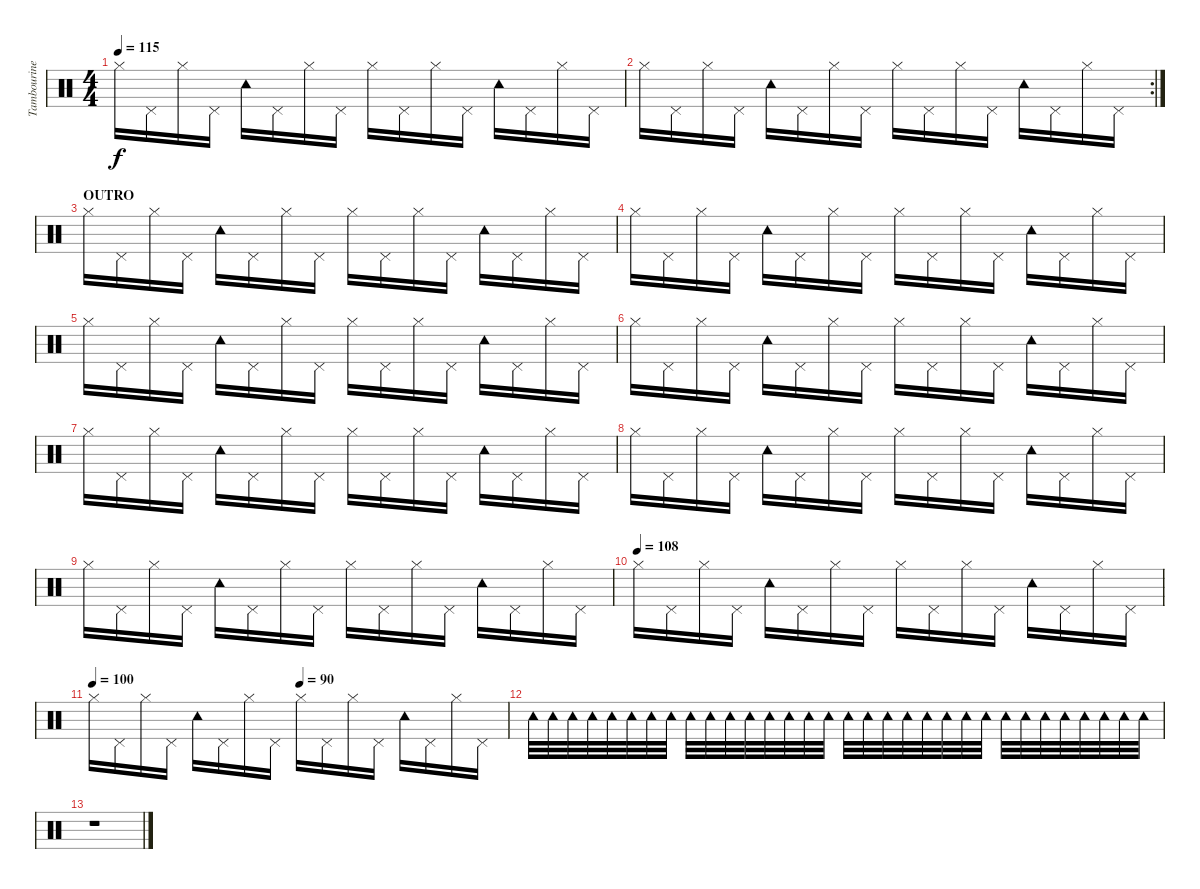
\track ("Tambourine" "Tambourine") {instrument percussion}
\staff {score}
\articulation defaults
\ts (4 4)
\tempo 115
\clef neutral
\ks c "Hi-Hat (closed)".16{dy f} "Pedal Hi-Hat (hit)".16 "Hi-Hat (closed)".16 "Pedal Hi-Hat (hit)".16 "Tambourine (hit)".16 "Pedal Hi-Hat (hit)".16 "Hi-Hat (closed)".16 "Pedal Hi-Hat (hit)".16 "Hi-Hat (closed)".16 "Pedal Hi-Hat (hit)".16 "Hi-Hat (closed)".16 "Pedal Hi-Hat (hit)".16 "Tambourine (hit)".16 "Pedal Hi-Hat (hit)".16 "Hi-Hat (closed)".16 "Pedal Hi-Hat (hit)".16
|
\rc 2 "Hi-Hat (closed)".16 "Pedal Hi-Hat (hit)".16 "Hi-Hat (closed)".16 "Pedal Hi-Hat (hit)".16 "Tambourine (hit)".16 "Pedal Hi-Hat (hit)".16 "Hi-Hat (closed)".16 "Pedal Hi-Hat (hit)".16 "Hi-Hat (closed)".16 "Pedal Hi-Hat (hit)".16 "Hi-Hat (closed)".16 "Pedal Hi-Hat (hit)".16 "Tambourine (hit)".16 "Pedal Hi-Hat (hit)".16 "Hi-Hat (closed)".16 "Pedal Hi-Hat (hit)".16
|
\section ("" "OUTRO")
"Hi-Hat (closed)".16 "Pedal Hi-Hat (hit)".16 "Hi-Hat (closed)".16 "Pedal Hi-Hat (hit)".16 "Tambourine (hit)".16 "Pedal Hi-Hat (hit)".16 "Hi-Hat (closed)".16 "Pedal Hi-Hat (hit)".16 "Hi-Hat (closed)".16 "Pedal Hi-Hat (hit)".16 "Hi-Hat (closed)".16 "Pedal Hi-Hat (hit)".16 "Tambourine (hit)".16 "Pedal Hi-Hat (hit)".16 "Hi-Hat (closed)".16 "Pedal Hi-Hat (hit)".16 |
"Hi-Hat (closed)".16 "Pedal Hi-Hat (hit)".16 "Hi-Hat (closed)".16 "Pedal Hi-Hat (hit)".16 "Tambourine (hit)".16 "Pedal Hi-Hat (hit)".16 "Hi-Hat (closed)".16 "Pedal Hi-Hat (hit)".16 "Hi-Hat (closed)".16 "Pedal Hi-Hat (hit)".16 "Hi-Hat (closed)".16 "Pedal Hi-Hat (hit)".16 "Tambourine (hit)".16 "Pedal Hi-Hat (hit)".16 "Hi-Hat (closed)".16 "Pedal Hi-Hat (hit)".16 |
"Hi-Hat (closed)".16 "Pedal Hi-Hat (hit)".16 "Hi-Hat (closed)".16 "Pedal Hi-Hat (hit)".16 "Tambourine (hit)".16 "Pedal Hi-Hat (hit)".16 "Hi-Hat (closed)".16 "Pedal Hi-Hat (hit)".16 "Hi-Hat (closed)".16 "Pedal Hi-Hat (hit)".16 "Hi-Hat (closed)".16 "Pedal Hi-Hat (hit)".16 "Tambourine (hit)".16 "Pedal Hi-Hat (hit)".16 "Hi-Hat (closed)".16 "Pedal Hi-Hat (hit)".16 |
"Hi-Hat (closed)".16 "Pedal Hi-Hat (hit)".16 "Hi-Hat (closed)".16 "Pedal Hi-Hat (hit)".16 "Tambourine (hit)".16 "Pedal Hi-Hat (hit)".16 "Hi-Hat (closed)".16 "Pedal Hi-Hat (hit)".16 "Hi-Hat (closed)".16 "Pedal Hi-Hat (hit)".16 "Hi-Hat (closed)".16 "Pedal Hi-Hat (hit)".16 "Tambourine (hit)".16 "Pedal Hi-Hat (hit)".16 "Hi-Hat (closed)".16 "Pedal Hi-Hat (hit)".16 |
"Hi-Hat (closed)".16 "Pedal Hi-Hat (hit)".16 "Hi-Hat (closed)".16 "Pedal Hi-Hat (hit)".16 "Tambourine (hit)".16 "Pedal Hi-Hat (hit)".16 "Hi-Hat (closed)".16 "Pedal Hi-Hat (hit)".16 "Hi-Hat (closed)".16 "Pedal Hi-Hat (hit)".16 "Hi-Hat (closed)".16 "Pedal Hi-Hat (hit)".16 "Tambourine (hit)".16 "Pedal Hi-Hat (hit)".16 "Hi-Hat (closed)".16 "Pedal Hi-Hat (hit)".16 |
"Hi-Hat (closed)".16 "Pedal Hi-Hat (hit)".16 "Hi-Hat (closed)".16 "Pedal Hi-Hat (hit)".16 "Tambourine (hit)".16 "Pedal Hi-Hat (hit)".16 "Hi-Hat (closed)".16 "Pedal Hi-Hat (hit)".16 "Hi-Hat (closed)".16 "Pedal Hi-Hat (hit)".16 "Hi-Hat (closed)".16 "Pedal Hi-Hat (hit)".16 "Tambourine (hit)".16 "Pedal Hi-Hat (hit)".16 "Hi-Hat (closed)".16 "Pedal Hi-Hat (hit)".16 |
"Hi-Hat (closed)".16 "Pedal Hi-Hat (hit)".16 "Hi-Hat (closed)".16 "Pedal Hi-Hat (hit)".16 "Tambourine (hit)".16 "Pedal Hi-Hat (hit)".16 "Hi-Hat (closed)".16 "Pedal Hi-Hat (hit)".16 "Hi-Hat (closed)".16 "Pedal Hi-Hat (hit)".16 "Hi-Hat (closed)".16 "Pedal Hi-Hat (hit)".16 "Tambourine (hit)".16 "Pedal Hi-Hat (hit)".16 "Hi-Hat (closed)".16 "Pedal Hi-Hat (hit)".16 |
\tempo (108)
"Hi-Hat (closed)".16 "Pedal Hi-Hat (hit)".16 "Hi-Hat (closed)".16 "Pedal Hi-Hat (hit)".16 "Tambourine (hit)".16 "Pedal Hi-Hat (hit)".16 "Hi-Hat (closed)".16 "Pedal Hi-Hat (hit)".16 "Hi-Hat (closed)".16 "Pedal Hi-Hat (hit)".16 "Hi-Hat (closed)".16 "Pedal Hi-Hat (hit)".16 "Tambourine (hit)".16 "Pedal Hi-Hat (hit)".16 "Hi-Hat (closed)".16 "Pedal Hi-Hat (hit)".16 |
\tempo 103
\tempo (97 0.5)
\tempo 100
\tempo (90 0.5)
"Hi-Hat (closed)".16 "Pedal Hi-Hat (hit)".16 "Hi-Hat (closed)".16 "Pedal Hi-Hat (hit)".16 "Tambourine (hit)".16 "Pedal Hi-Hat (hit)".16 "Hi-Hat (closed)".16 "Pedal Hi-Hat (hit)".16 "Hi-Hat (closed)".16 "Pedal Hi-Hat (hit)".16 "Hi-Hat (closed)".16 "Pedal Hi-Hat (hit)".16 "Tambourine (hit)".16 "Pedal Hi-Hat (hit)".16 "Hi-Hat (closed)".16 "Pedal Hi-Hat (hit)".16 |
"Tambourine (hit)".32 "Tambourine (hit)".32 "Tambourine (hit)".32 "Tambourine (hit)".32 "Tambourine (hit)".32 "Tambourine (hit)".32 "Tambourine (hit)".32 "Tambourine (hit)".32 "Tambourine (hit)".32 "Tambourine (hit)".32 "Tambourine (hit)".32 "Tambourine (hit)".32 "Tambourine (hit)".32 "Tambourine (hit)".32 "Tambourine (hit)".32 "Tambourine (hit)".32 "Tambourine (hit)".32{volume 6} "Tambourine (hit)".32 "Tambourine (hit)".32{volume 5} "Tambourine (hit)".32 "Tambourine (hit)".32{volume 5} "Tambourine (hit)".32 "Tambourine (hit)".32{volume 5} "Tambourine (hit)".32 "Tambourine (hit)".32{volume 4} "Tambourine (hit)".32 "Tambourine (hit)".32 "Tambourine (hit)".32{volume 4} "Tambourine (hit)".32 "Tambourine (hit)".32 "Tambourine (hit)".32{volume 3} "Tambourine (hit)".32 |
r.1
